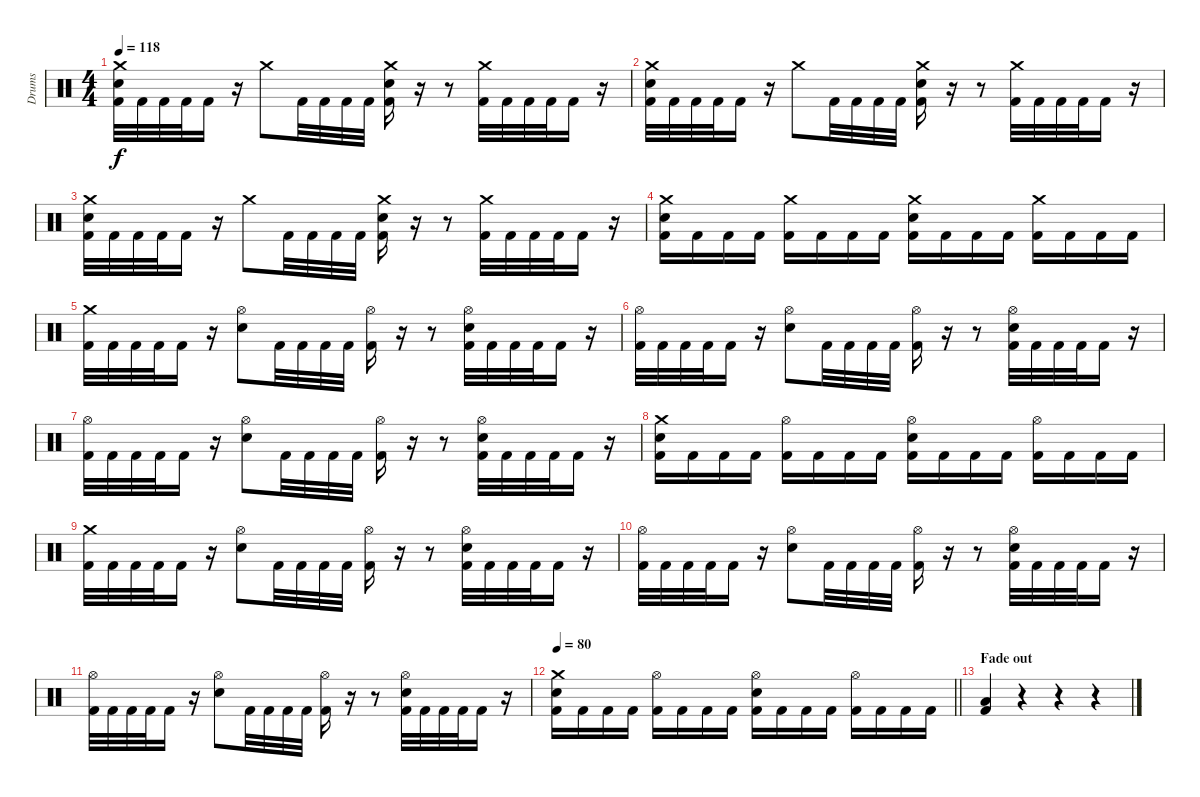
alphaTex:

\track ("Drums" "Drums") {instrument percussion}
\staff {score}
\articulation defaults
\ts (4 4)
\tempo 118
\clef neutral
\ks c
("Crash medium (hit)" "Electric Snare (hit)" "Kick (hit) 2").32{dy f} "Kick (hit) 2".32 "Kick (hit) 2".32 "Kick (hit) 2".32 "Kick (hit) 2".16 r.16 "Crash medium (hit)".8 "Kick (hit) 2".32 "Kick (hit) 2".32 "Kick (hit) 2".32 "Kick (hit) 2".32 ("Crash medium (hit)" "Electric Snare (hit)" "Kick (hit) 2").16 r.16 r.8 ("Crash medium (hit)" "Kick (hit) 2").32 "Kick (hit) 2".32 "Kick (hit) 2".32 "Kick (hit) 2".32 "Kick (hit) 2".16 r.16 |
("Crash medium (hit)" "Electric Snare (hit)" "Kick (hit) 2").32 "Kick (hit) 2".32 "Kick (hit) 2".32 "Kick (hit) 2".32 "Kick (hit) 2".16 r.16 "Crash medium (hit)".8 "Kick (hit) 2".32 "Kick (hit) 2".32 "Kick (hit) 2".32 "Kick (hit) 2".32 ("Crash medium (hit)" "Electric Snare (hit)" "Kick (hit) 2").16 r.16 r.8 ("Crash medium (hit)" "Kick (hit) 2").32 "Kick (hit) 2".32 "Kick (hit) 2".32 "Kick (hit) 2".32 "Kick (hit) 2".16 r.16 |
("Crash medium (hit)" "Electric Snare (hit)" "Kick (hit) 2").32 "Kick (hit) 2".32 "Kick (hit) 2".32 "Kick (hit) 2".32 "Kick (hit) 2".16 r.16 "Crash medium (hit)".8 "Kick (hit) 2".32 "Kick (hit) 2".32 "Kick (hit) 2".32 "Kick (hit) 2".32 ("Crash medium (hit)" "Electric Snare (hit)" "Kick (hit) 2").16 r.16 r.8 ("Crash medium (hit)" "Kick (hit) 2").32 "Kick (hit) 2".32 "Kick (hit) 2".32 "Kick (hit) 2".32 "Kick (hit) 2".16 r.16 |
("Crash medium (hit)" "Electric Snare (hit)" "Kick (hit) 2").16 "Kick (hit) 2".16 "Kick (hit) 2".16 "Kick (hit) 2".16 ("Crash medium (hit)" "Kick (hit) 2").16 "Kick (hit) 2".16 "Kick (hit) 2".16 "Kick (hit) 2".16 ("Crash medium (hit)" "Electric Snare (hit)" "Kick (hit) 2").16 "Kick (hit) 2".16 "Kick (hit) 2".16 "Kick (hit) 2".16 ("Crash medium (hit)" "Kick (hit) 2").16 "Kick (hit) 2".16 "Kick (hit) 2".16 "Kick (hit) 2".16 |
("Crash medium (hit)" "Kick (hit) 2").32 "Kick (hit) 2".32 "Kick (hit) 2".32 "Kick (hit) 2".32 "Kick (hit) 2".16 r.16 ("Hi-Hat (open)" "Electric Snare (hit)").8 "Kick (hit) 2".32 "Kick (hit) 2".32 "Kick (hit) 2".32 "Kick (hit) 2".32 ("Hi-Hat (open)" "Kick (hit) 2").16 r.16 r.8 ("Hi-Hat (open)" "Electric Snare (hit)" "Kick (hit) 2").32 "Kick (hit) 2".32 "Kick (hit) 2".32 "Kick (hit) 2".32 "Kick (hit) 2".16 r.16 |
("Hi-Hat (open)" "Kick (hit) 2").32 "Kick (hit) 2".32 "Kick (hit) 2".32 "Kick (hit) 2".32 "Kick (hit) 2".16 r.16 ("Hi-Hat (open)" "Electric Snare (hit)").8 "Kick (hit) 2".32 "Kick (hit) 2".32 "Kick (hit) 2".32 "Kick (hit) 2".32 ("Hi-Hat (open)" "Kick (hit) 2").16 r.16 r.8 ("Hi-Hat (open)" "Electric Snare (hit)" "Kick (hit) 2").32 "Kick (hit) 2".32 "Kick (hit) 2".32 "Kick (hit) 2".32 "Kick (hit) 2".16 r.16 |
("Hi-Hat (open)" "Kick (hit) 2").32 "Kick (hit) 2".32 "Kick (hit) 2".32 "Kick (hit) 2".32 "Kick (hit) 2".16 r.16 ("Hi-Hat (open)" "Electric Snare (hit)").8 "Kick (hit) 2".32 "Kick (hit) 2".32 "Kick (hit) 2".32 "Kick (hit) 2".32 ("Hi-Hat (open)" "Kick (hit) 2").16 r.16 r.8 ("Hi-Hat (open)" "Electric Snare (hit)" "Kick (hit) 2").32 "Kick (hit) 2".32 "Kick (hit) 2".32 "Kick (hit) 2".32 "Kick (hit) 2".16 r.16 |
("Crash medium (hit)" "Electric Snare (hit)" "Kick (hit) 2").16 "Kick (hit) 2".16 "Kick (hit) 2".16 "Kick (hit) 2".16 ("Hi-Hat (open)" "Kick (hit) 2").16 "Kick (hit) 2".16 "Kick (hit) 2".16 "Kick (hit) 2".16 ("Hi-Hat (open)" "Electric Snare (hit)" "Kick (hit) 2").16 "Kick (hit) 2".16 "Kick (hit) 2".16 "Kick (hit) 2".16 ("Hi-Hat (open)" "Kick (hit) 2").16 "Kick (hit) 2".16 "Kick (hit) 2".16 "Kick (hit) 2".16 |
("Crash medium (hit)" "Kick (hit) 2").32 "Kick (hit) 2".32 "Kick (hit) 2".32 "Kick (hit) 2".32 "Kick (hit) 2".16 r.16 ("Hi-Hat (open)" "Electric Snare (hit)").8 "Kick (hit) 2".32 "Kick (hit) 2".32 "Kick (hit) 2".32 "Kick (hit) 2".32 ("Hi-Hat (open)" "Kick (hit) 2").16 r.16 r.8 ("Hi-Hat (open)" "Electric Snare (hit)" "Kick (hit) 2").32 "Kick (hit) 2".32 "Kick (hit) 2".32 "Kick (hit) 2".32 "Kick (hit) 2".16 r.16 |
("Hi-Hat (open)" "Kick (hit) 2").32 "Kick (hit) 2".32 "Kick (hit) 2".32 "Kick (hit) 2".32 "Kick (hit) 2".16 r.16 ("Hi-Hat (open)" "Electric Snare (hit)").8 "Kick (hit) 2".32 "Kick (hit) 2".32 "Kick (hit) 2".32 "Kick (hit) 2".32 ("Hi-Hat (open)" "Kick (hit) 2").16 r.16 r.8 ("Hi-Hat (open)" "Electric Snare (hit)" "Kick (hit) 2").32 "Kick (hit) 2".32 "Kick (hit) 2".32 "Kick (hit) 2".32 "Kick (hit) 2".16 r.16 |
("Hi-Hat (open)" "Kick (hit) 2").32 "Kick (hit) 2".32 "Kick (hit) 2".32 "Kick (hit) 2".32 "Kick (hit) 2".16 r.16 ("Hi-Hat (open)" "Electric Snare (hit)").8 "Kick (hit) 2".32 "Kick (hit) 2".32 "Kick (hit) 2".32 "Kick (hit) 2".32 ("Hi-Hat (open)" "Kick (hit) 2").16 r.16 r.8 ("Hi-Hat (open)" "Electric Snare (hit)" "Kick (hit) 2").32 "Kick (hit) 2".32 "Kick (hit) 2".32 "Kick (hit) 2".32 "Kick (hit) 2".16 r.16 |
\tempo 80
\barLineRight lightlight
("Crash medium (hit)" "Electric Snare (hit)" "Kick (hit) 2").16 "Kick (hit) 2".16 "Kick (hit) 2".16 "Kick (hit) 2".16 ("Hi-Hat (open)" "Kick (hit) 2").16 "Kick (hit) 2".16 "Kick (hit) 2".16 "Kick (hit) 2".16 ("Hi-Hat (open)" "Electric Snare (hit)" "Kick (hit) 2").16 "Kick (hit) 2".16 "Kick (hit) 2".16 "Kick (hit) 2".16 ("Hi-Hat (open)" "Kick (hit) 2").16 "Kick (hit) 2".16 "Kick (hit) 2".16 "Kick (hit) 2".16 |
\section ("" "Fade out")
("Low Tom (hit)" "Kick (hit) 2").4 r.4 r.4 r.4
